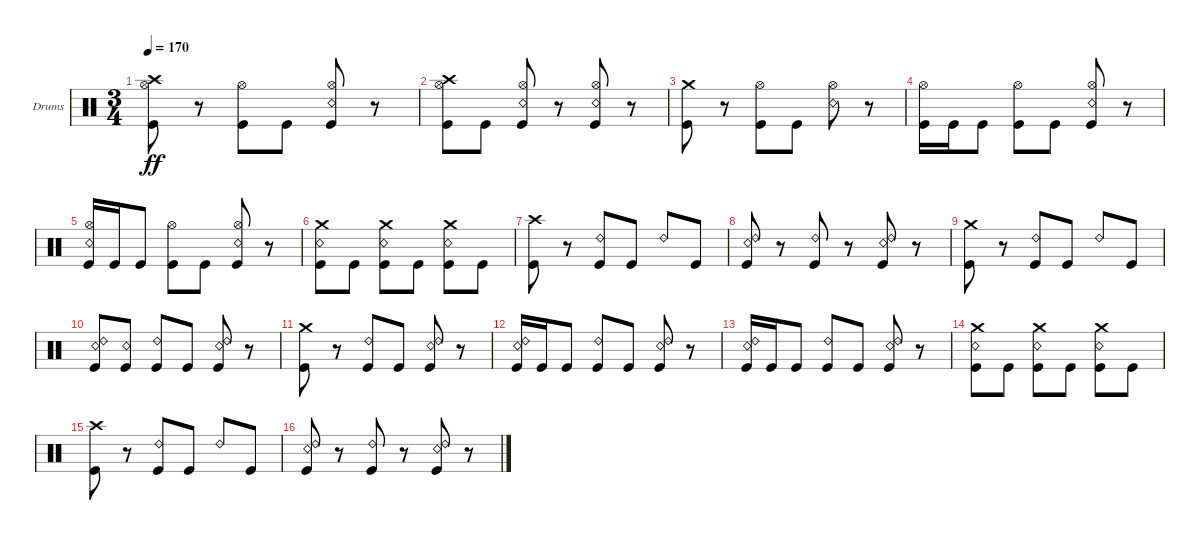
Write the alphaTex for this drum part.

\bracketExtendMode groupsimilarinstruments
\firstSystemTrackNameOrientation horizontal
\otherSystemsTrackNameOrientation horizontal
\track ("Kaleb - Drums" "Drums") {instrument percussion}
\staff {score}
\articulation defaults
\ts (3 4)
\tempo 170
\clef neutral
\ks c
("Kick (hit)" "Hi-Hat (open)" "Crash high (hit)").8{dy ff} r.8 ("Kick (hit)" "Hi-Hat (open)").8 "Kick (hit)".8 ("Kick (hit)" "Hi-Hat (open)" "Snare (rim shot)").8 r.8 |
("Kick (hit)" "Hi-Hat (open)" "Crash high (hit)").8 "Kick (hit)".8 ("Kick (hit)" "Hi-Hat (open)" "Snare (rim shot)").8 r.8 ("Kick (hit)" "Hi-Hat (open)" "Snare (rim shot)").8 r.8 |
("Kick (hit)" "Crash medium (hit)").8 r.8 ("Kick (hit)" "Hi-Hat (open)").8 "Kick (hit)".8 ("Snare (rim shot)" "Hi-Hat (open)").8 r.8 |
("Kick (hit)" "Hi-Hat (open)").16 "Kick (hit)".16 "Kick (hit)".8 ("Kick (hit)" "Hi-Hat (open)").8 "Kick (hit)".8 ("Kick (hit)" "Hi-Hat (open)" "Snare (rim shot)").8 r.8 |
("Kick (hit)" "Hi-Hat (open)" "Snare (rim shot)").16 "Kick (hit)".16 "Kick (hit)".8 ("Kick (hit)" "Hi-Hat (open)").8 "Kick (hit)".8 ("Kick (hit)" "Hi-Hat (open)" "Snare (rim shot)").8 r.8 |
("Kick (hit)" "Crash medium (hit)" "Snare (rim shot)").8 "Kick (hit)".8 ("Kick (hit)" "Crash medium (hit)" "Snare (rim shot)").8 "Kick (hit)".8 ("Kick (hit)" "Crash medium (hit)" "Snare (rim shot)").8 "Kick (hit)".8 |
("Kick (hit)" "Crash high (hit)").8 r.8 ("Kick (hit)" "Ride (bell) 2").8 "Kick (hit)".8 "Ride (bell) 2".8 "Kick (hit)".8 |
("Kick (hit)" "Ride (bell) 2" "Snare (rim shot)").8 r.8 ("Kick (hit)" "Ride (bell) 2").8 r.8 ("Kick (hit)" "Ride (bell) 2" "Snare (rim shot)").8 r.8 |
("Kick (hit)" "Crash medium (hit)").8 r.8 ("Kick (hit)" "Ride (bell) 2").8 "Kick (hit)".8 "Ride (bell) 2".8 "Kick (hit)".8 |
("Kick (hit)" "Ride (bell) 2" "Snare (rim shot)").8 ("Kick (hit)" "Snare (rim shot)").8 ("Kick (hit)" "Ride (bell) 2").8 "Kick (hit)".8 ("Kick (hit)" "Ride (bell) 2" "Snare (rim shot)").8 r.8 |
("Kick (hit)" "Crash medium (hit)").8 r.8 ("Kick (hit)" "Ride (bell) 2").8 "Kick (hit)".8 ("Kick (hit)" "Snare (rim shot)" "Ride (bell) 2").8 r.8 |
("Kick (hit)" "Snare (rim shot)" "Ride (bell) 2").16 "Kick (hit)".16 "Kick (hit)".8 ("Kick (hit)" "Ride (bell) 2").8 "Kick (hit)".8 ("Kick (hit)" "Snare (rim shot)" "Ride (bell) 2").8 r.8 |
("Kick (hit)" "Snare (rim shot)" "Ride (bell) 2").16 "Kick (hit)".16 "Kick (hit)".8 ("Kick (hit)" "Ride (bell) 2").8 "Kick (hit)".8 ("Kick (hit)" "Snare (rim shot)" "Ride (bell) 2").8 r.8 |
("Kick (hit)" "Crash medium (hit)" "Snare (rim shot)").8 "Kick (hit)".8 ("Kick (hit)" "Crash medium (hit)" "Snare (rim shot)").8 "Kick (hit)".8 ("Kick (hit)" "Crash medium (hit)" "Snare (rim shot)").8 "Kick (hit)".8 |
("Kick (hit)" "Crash high (hit)").8 r.8 ("Kick (hit)" "Ride (bell) 2").8 "Kick (hit)".8 "Ride (bell) 2".8 "Kick (hit)".8 |
("Kick (hit)" "Ride (bell) 2" "Snare (rim shot)").8 r.8 ("Kick (hit)" "Ride (bell) 2").8 r.8 ("Kick (hit)" "Ride (bell) 2" "Snare (rim shot)").8 r.8
